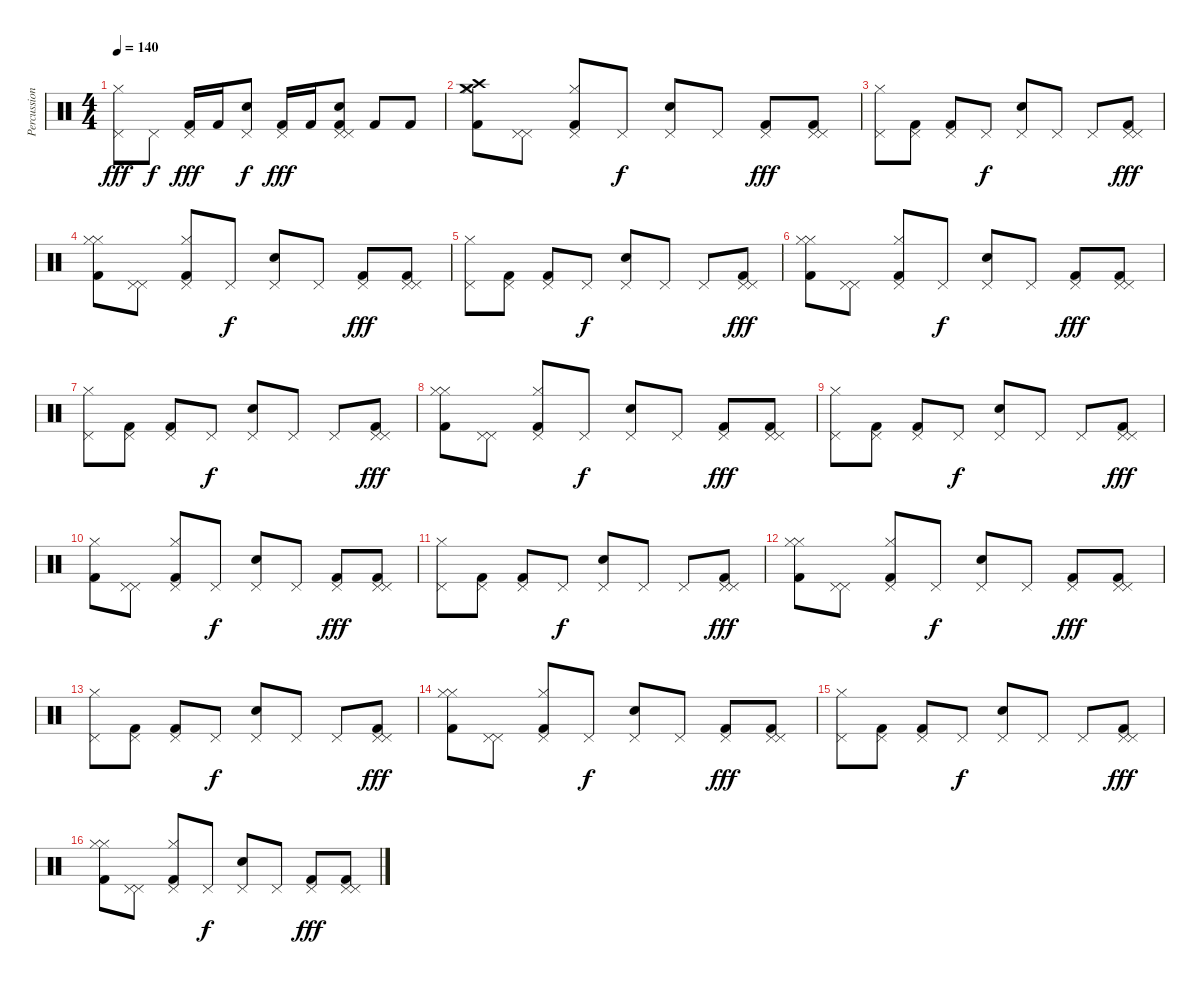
\track ("Percussion" "Percussion") {instrument percussion}
\staff {score}
\articulation defaults
\ts (4 4)
\tempo 140
\clef neutral
\ks c
("Pedal Hi-Hat (hit)" "Hi-Hat (closed)").8{dy fff} "Pedal Hi-Hat (hit)".8{dy f} ("Pedal Hi-Hat (hit)" "Kick (hit) 2").16{dy fff} "Kick (hit) 2".16 ("Pedal Hi-Hat (hit)" "Electric Snare (hit)").8{dy f} ("Pedal Hi-Hat (hit)" "Kick (hit) 2").16{dy fff} "Kick (hit) 2".16 ("Pedal Hi-Hat (hit)" "Pedal Hi-Hat (hit)" "Electric Snare (hit)" "Kick (hit) 2").8 "Kick (hit) 2".8 "Kick (hit) 2".8 |
("Hi-Hat (closed)" "Crash medium (hit)" "Crash high (hit)" "Kick (hit) 2").8 ("Pedal Hi-Hat (hit)" "Pedal Hi-Hat (hit)").8 ("Pedal Hi-Hat (hit)" "Hi-Hat (closed)" "Kick (hit) 2").8 "Pedal Hi-Hat (hit)".8{dy f} ("Pedal Hi-Hat (hit)" "Electric Snare (hit)").8 "Pedal Hi-Hat (hit)".8 ("Pedal Hi-Hat (hit)" "Kick (hit) 2").8{dy fff} ("Pedal Hi-Hat (hit)" "Pedal Hi-Hat (hit)" "Kick (hit) 2").8 |
("Pedal Hi-Hat (hit)" "Hi-Hat (closed)").8 ("Pedal Hi-Hat (hit)" "Kick (hit) 2").8 ("Pedal Hi-Hat (hit)" "Kick (hit) 2").8 "Pedal Hi-Hat (hit)".8{dy f} ("Pedal Hi-Hat (hit)" "Electric Snare (hit)").8 "Pedal Hi-Hat (hit)".8 "Pedal Hi-Hat (hit)".8 ("Pedal Hi-Hat (hit)" "Pedal Hi-Hat (hit)" "Kick (hit) 2").8{dy fff} |
("Hi-Hat (closed)" "Hi-Hat (closed)" "Kick (hit) 2").8 ("Pedal Hi-Hat (hit)" "Pedal Hi-Hat (hit)").8 ("Pedal Hi-Hat (hit)" "Hi-Hat (closed)" "Kick (hit) 2").8 "Pedal Hi-Hat (hit)".8{dy f} ("Pedal Hi-Hat (hit)" "Electric Snare (hit)").8 "Pedal Hi-Hat (hit)".8 ("Pedal Hi-Hat (hit)" "Kick (hit) 2").8{dy fff} ("Pedal Hi-Hat (hit)" "Pedal Hi-Hat (hit)" "Kick (hit) 2").8 |
("Pedal Hi-Hat (hit)" "Hi-Hat (closed)").8 ("Pedal Hi-Hat (hit)" "Kick (hit) 2").8 ("Pedal Hi-Hat (hit)" "Kick (hit) 2").8 "Pedal Hi-Hat (hit)".8{dy f} ("Pedal Hi-Hat (hit)" "Electric Snare (hit)").8 "Pedal Hi-Hat (hit)".8 "Pedal Hi-Hat (hit)".8 ("Pedal Hi-Hat (hit)" "Pedal Hi-Hat (hit)" "Kick (hit) 2").8{dy fff} |
("Hi-Hat (closed)" "Hi-Hat (closed)" "Kick (hit) 2").8 ("Pedal Hi-Hat (hit)" "Pedal Hi-Hat (hit)").8 ("Pedal Hi-Hat (hit)" "Hi-Hat (closed)" "Kick (hit) 2").8 "Pedal Hi-Hat (hit)".8{dy f} ("Pedal Hi-Hat (hit)" "Electric Snare (hit)").8 "Pedal Hi-Hat (hit)".8 ("Pedal Hi-Hat (hit)" "Kick (hit) 2").8{dy fff} ("Pedal Hi-Hat (hit)" "Pedal Hi-Hat (hit)" "Kick (hit) 2").8 |
("Pedal Hi-Hat (hit)" "Hi-Hat (closed)").8 ("Pedal Hi-Hat (hit)" "Kick (hit) 2").8 ("Pedal Hi-Hat (hit)" "Kick (hit) 2").8 "Pedal Hi-Hat (hit)".8{dy f} ("Pedal Hi-Hat (hit)" "Electric Snare (hit)").8 "Pedal Hi-Hat (hit)".8 "Pedal Hi-Hat (hit)".8 ("Pedal Hi-Hat (hit)" "Pedal Hi-Hat (hit)" "Kick (hit) 2").8{dy fff} |
("Hi-Hat (closed)" "Hi-Hat (closed)" "Kick (hit) 2").8 ("Pedal Hi-Hat (hit)" "Pedal Hi-Hat (hit)").8 ("Pedal Hi-Hat (hit)" "Hi-Hat (closed)" "Kick (hit) 2").8 "Pedal Hi-Hat (hit)".8{dy f} ("Pedal Hi-Hat (hit)" "Electric Snare (hit)").8 "Pedal Hi-Hat (hit)".8 ("Pedal Hi-Hat (hit)" "Kick (hit) 2").8{dy fff} ("Pedal Hi-Hat (hit)" "Pedal Hi-Hat (hit)" "Kick (hit) 2").8 |
("Pedal Hi-Hat (hit)" "Hi-Hat (closed)").8 ("Pedal Hi-Hat (hit)" "Kick (hit) 2").8 ("Pedal Hi-Hat (hit)" "Kick (hit) 2").8 "Pedal Hi-Hat (hit)".8{dy f} ("Pedal Hi-Hat (hit)" "Electric Snare (hit)").8 "Pedal Hi-Hat (hit)".8 "Pedal Hi-Hat (hit)".8 ("Pedal Hi-Hat (hit)" "Pedal Hi-Hat (hit)" "Kick (hit) 2").8{dy fff} |
("Hi-Hat (closed)" "Kick (hit) 2").8 ("Pedal Hi-Hat (hit)" "Pedal Hi-Hat (hit)").8 ("Pedal Hi-Hat (hit)" "Hi-Hat (closed)" "Kick (hit) 2").8 "Pedal Hi-Hat (hit)".8{dy f} ("Pedal Hi-Hat (hit)" "Electric Snare (hit)").8 "Pedal Hi-Hat (hit)".8 ("Pedal Hi-Hat (hit)" "Kick (hit) 2").8{dy fff} ("Pedal Hi-Hat (hit)" "Pedal Hi-Hat (hit)" "Kick (hit) 2").8 |
("Pedal Hi-Hat (hit)" "Hi-Hat (closed)").8 ("Pedal Hi-Hat (hit)" "Kick (hit) 2").8 ("Pedal Hi-Hat (hit)" "Kick (hit) 2").8 "Pedal Hi-Hat (hit)".8{dy f} ("Pedal Hi-Hat (hit)" "Electric Snare (hit)").8 "Pedal Hi-Hat (hit)".8 "Pedal Hi-Hat (hit)".8 ("Pedal Hi-Hat (hit)" "Pedal Hi-Hat (hit)" "Kick (hit) 2").8{dy fff} |
("Hi-Hat (closed)" "Hi-Hat (closed)" "Kick (hit) 2").8 ("Pedal Hi-Hat (hit)" "Pedal Hi-Hat (hit)").8 ("Pedal Hi-Hat (hit)" "Hi-Hat (closed)" "Kick (hit) 2").8 "Pedal Hi-Hat (hit)".8{dy f} ("Pedal Hi-Hat (hit)" "Electric Snare (hit)").8 "Pedal Hi-Hat (hit)".8 ("Pedal Hi-Hat (hit)" "Kick (hit) 2").8{dy fff} ("Pedal Hi-Hat (hit)" "Pedal Hi-Hat (hit)" "Kick (hit) 2").8 |
("Pedal Hi-Hat (hit)" "Hi-Hat (closed)").8 ("Pedal Hi-Hat (hit)" "Kick (hit) 2").8 ("Pedal Hi-Hat (hit)" "Kick (hit) 2").8 "Pedal Hi-Hat (hit)".8{dy f} ("Pedal Hi-Hat (hit)" "Electric Snare (hit)").8 "Pedal Hi-Hat (hit)".8 "Pedal Hi-Hat (hit)".8 ("Pedal Hi-Hat (hit)" "Pedal Hi-Hat (hit)" "Kick (hit) 2").8{dy fff} |
("Hi-Hat (closed)" "Hi-Hat (closed)" "Kick (hit) 2").8 ("Pedal Hi-Hat (hit)" "Pedal Hi-Hat (hit)").8 ("Pedal Hi-Hat (hit)" "Hi-Hat (closed)" "Kick (hit) 2").8 "Pedal Hi-Hat (hit)".8{dy f} ("Pedal Hi-Hat (hit)" "Electric Snare (hit)").8 "Pedal Hi-Hat (hit)".8 ("Pedal Hi-Hat (hit)" "Kick (hit) 2").8{dy fff} ("Pedal Hi-Hat (hit)" "Pedal Hi-Hat (hit)" "Kick (hit) 2").8 |
("Pedal Hi-Hat (hit)" "Hi-Hat (closed)").8 ("Pedal Hi-Hat (hit)" "Kick (hit) 2").8 ("Pedal Hi-Hat (hit)" "Kick (hit) 2").8 "Pedal Hi-Hat (hit)".8{dy f} ("Pedal Hi-Hat (hit)" "Electric Snare (hit)").8 "Pedal Hi-Hat (hit)".8 "Pedal Hi-Hat (hit)".8 ("Pedal Hi-Hat (hit)" "Pedal Hi-Hat (hit)" "Kick (hit) 2").8{dy fff} |
("Hi-Hat (closed)" "Hi-Hat (closed)" "Kick (hit) 2").8 ("Pedal Hi-Hat (hit)" "Pedal Hi-Hat (hit)").8 ("Pedal Hi-Hat (hit)" "Hi-Hat (closed)" "Kick (hit) 2").8 "Pedal Hi-Hat (hit)".8{dy f} ("Pedal Hi-Hat (hit)" "Electric Snare (hit)").8 "Pedal Hi-Hat (hit)".8 ("Pedal Hi-Hat (hit)" "Kick (hit) 2").8{dy fff} ("Pedal Hi-Hat (hit)" "Pedal Hi-Hat (hit)" "Kick (hit) 2").8
